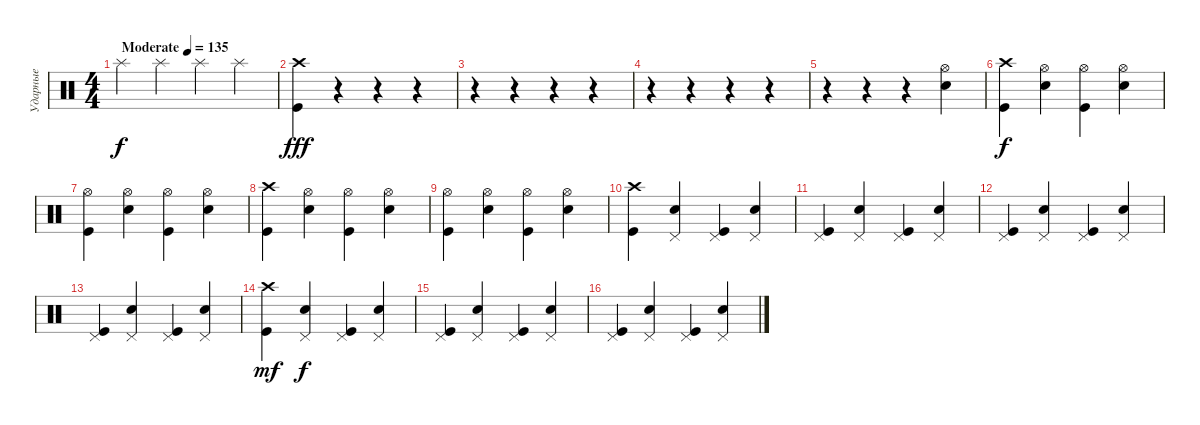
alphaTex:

\track ("Ударные" "Ударные") {instrument percussion}
\staff {score}
\articulation defaults
\ts (4 4)
\tempo (135 "Moderate")
\clef neutral
\ks c "Splash (hit)".4{dy f} "Splash (hit)".4 "Splash (hit)".4 "Splash (hit)".4
|
("Crash high (hit)" "Kick (hit)").4{dy fff} r.4 r.4 r.4 |
r.4 r.4 r.4 r.4 |
r.4 r.4 r.4 r.4 |
r.4 r.4 r.4 ("Hi-Hat (open)" "Snare (hit) 2").4 |
("Crash high (hit)" "Kick (hit)").4{dy f} ("Hi-Hat (open)" "Snare (hit) 2").4 ("Hi-Hat (open)" "Kick (hit)").4 ("Hi-Hat (open)" "Snare (hit) 2").4 |
("Hi-Hat (open)" "Kick (hit)").4 ("Hi-Hat (open)" "Snare (hit) 2").4 ("Hi-Hat (open)" "Kick (hit)").4 ("Hi-Hat (open)" "Snare (hit) 2").4 |
("Crash high (hit)" "Kick (hit)").4 ("Hi-Hat (open)" "Snare (hit) 2").4 ("Hi-Hat (open)" "Kick (hit)").4 ("Hi-Hat (open)" "Snare (hit) 2").4 |
("Hi-Hat (open)" "Kick (hit)").4 ("Hi-Hat (open)" "Snare (hit) 2").4 ("Hi-Hat (open)" "Kick (hit)").4 ("Hi-Hat (open)" "Snare (hit) 2").4 |
("Crash high (hit)" "Kick (hit)").4 ("Pedal Hi-Hat (hit)" "Snare (hit) 2").4 ("Pedal Hi-Hat (hit)" "Kick (hit)").4 ("Pedal Hi-Hat (hit)" "Snare (hit) 2").4 |
("Pedal Hi-Hat (hit)" "Kick (hit)").4 ("Pedal Hi-Hat (hit)" "Snare (hit) 2").4 ("Pedal Hi-Hat (hit)" "Kick (hit)").4 ("Pedal Hi-Hat (hit)" "Snare (hit) 2").4 |
("Pedal Hi-Hat (hit)" "Kick (hit)").4 ("Pedal Hi-Hat (hit)" "Snare (hit) 2").4 ("Pedal Hi-Hat (hit)" "Kick (hit)").4 ("Pedal Hi-Hat (hit)" "Snare (hit) 2").4 |
("Pedal Hi-Hat (hit)" "Kick (hit)").4 ("Pedal Hi-Hat (hit)" "Snare (hit) 2").4 ("Pedal Hi-Hat (hit)" "Kick (hit)").4 ("Pedal Hi-Hat (hit)" "Snare (hit) 2").4 |
("Crash high (hit)" "Kick (hit)").4{dy mf} ("Pedal Hi-Hat (hit)" "Snare (hit) 2").4{dy f} ("Pedal Hi-Hat (hit)" "Kick (hit)").4 ("Pedal Hi-Hat (hit)" "Snare (hit) 2").4 |
("Pedal Hi-Hat (hit)" "Kick (hit)").4 ("Pedal Hi-Hat (hit)" "Snare (hit) 2").4 ("Pedal Hi-Hat (hit)" "Kick (hit)").4 ("Pedal Hi-Hat (hit)" "Snare (hit) 2").4 |
("Pedal Hi-Hat (hit)" "Kick (hit)").4 ("Pedal Hi-Hat (hit)" "Snare (hit) 2").4 ("Pedal Hi-Hat (hit)" "Kick (hit)").4 ("Pedal Hi-Hat (hit)" "Snare (hit) 2").4
